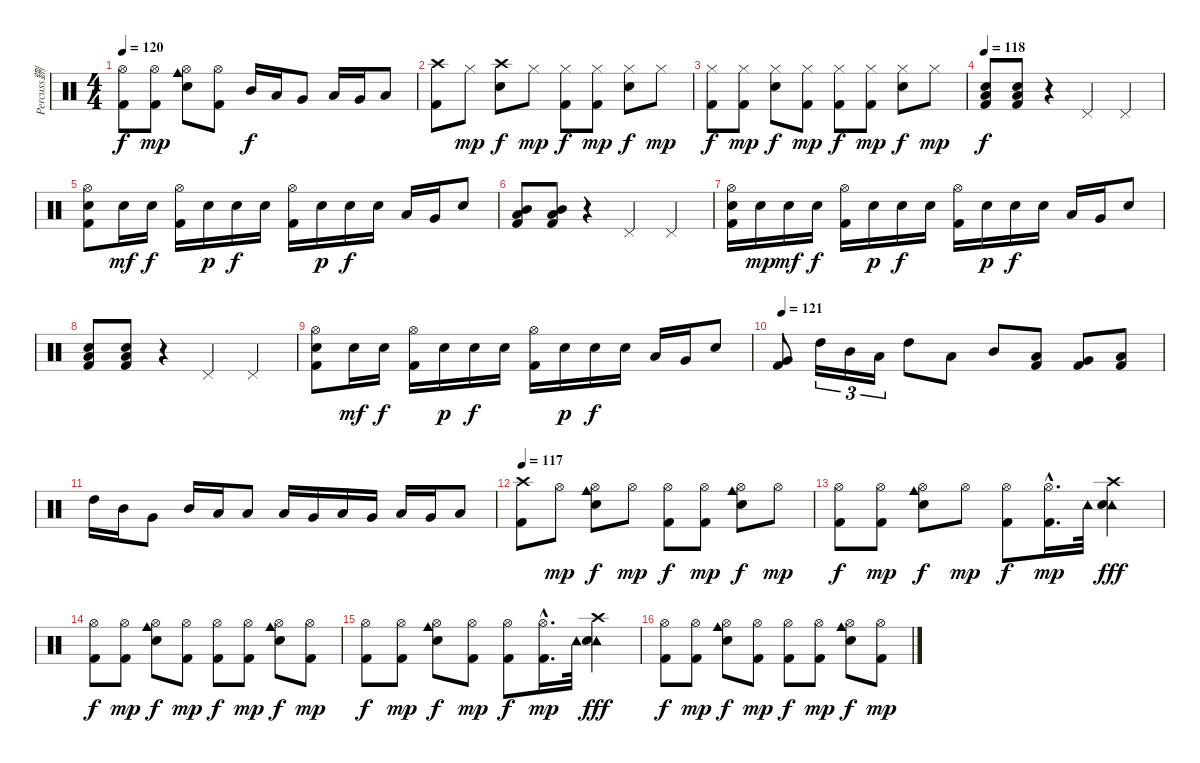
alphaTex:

\track ("Percuss鉶" "Percuss鉶") {instrument percussion}
\staff {score}
\articulation defaults
\ts (4 4)
\tempo 120
\clef neutral
\ks c
("Hi-Hat (open)" "Kick (hit) 2").8{dy f} ("Hi-Hat (open)" "Kick (hit) 2").8{dy mp} ("Cowbell medium (hit)" "Hi-Hat (open)" "Snare (hit) 2").8 ("Hi-Hat (open)" "Kick (hit) 2").8 "Mid Tom (hit)".16{dy f} "Low Tom (hit)".16 "Very Low Tom (hit)".8 "Low Tom (hit)".16 "Very Low Tom (hit)".16 "Low Floor Tom (hit)".8 |
("Crash high (hit)" "Kick (hit) 2").8 "Hi-Hat (closed)".8{dy mp} ("Crash high (hit)" "Snare (hit) 2").8{dy f} "Hi-Hat (closed)".8{dy mp} ("Hi-Hat (closed)" "Kick (hit) 2").8{dy f} ("Hi-Hat (closed)" "Kick (hit) 2").8{dy mp} ("Hi-Hat (closed)" "Snare (hit) 2").8{dy f} "Hi-Hat (closed)".8{dy mp} |
("Hi-Hat (closed)" "Kick (hit) 2").8{dy f} ("Hi-Hat (closed)" "Kick (hit) 2").8{dy mp} ("Hi-Hat (closed)" "Snare (hit) 2").8{dy f} ("Hi-Hat (closed)" "Kick (hit) 2").8{dy mp} ("Hi-Hat (closed)" "Kick (hit) 2").8{dy f} ("Hi-Hat (closed)" "Kick (hit) 2").8{dy mp} ("Hi-Hat (closed)" "Snare (hit) 2").8{dy f} "Hi-Hat (closed)".8{dy mp} |
\tempo 118
("Low Tom (hit)" "Snare (hit) 2" "Kick (hit) 2").8{dy f} ("Low Tom (hit)" "Snare (hit) 2" "Kick (hit) 2").8 r.4 "Pedal Hi-Hat (hit)".4 "Pedal Hi-Hat (hit)".4 |
("Hi-Hat (open)" "Snare (hit) 2" "Kick (hit) 2").8 "Snare (hit) 2".16{dy mf} "Snare (hit) 2".16{dy f} ("Hi-Hat (open)" "Kick (hit) 2").16 "Snare (hit) 2".16{dy p} "Snare (hit) 2".16{dy f} "Snare (hit) 2".16 ("Hi-Hat (open)" "Kick (hit) 2").16 "Snare (hit) 2".16{dy p} "Snare (hit) 2".16{dy f} "Snare (hit) 2".16 "Low Tom (hit)".16 "Very Low Tom (hit)".16 "Snare (hit) 2".8 |
("Mid Tom (hit)" "Low Tom (hit)" "Kick (hit) 2").8 ("Mid Tom (hit)" "Low Tom (hit)" "Kick (hit) 2").8 r.4 "Pedal Hi-Hat (hit)".4 "Pedal Hi-Hat (hit)".4 |
("Hi-Hat (open)" "Snare (hit) 2" "Kick (hit) 2").16 "Snare (hit) 2".16{dy mp} "Snare (hit) 2".16{dy mf} "Snare (hit) 2".16{dy f} ("Hi-Hat (open)" "Kick (hit) 2").16 "Snare (hit) 2".16{dy p} "Snare (hit) 2".16{dy f} "Snare (hit) 2".16 ("Hi-Hat (open)" "Kick (hit) 2").16 "Snare (hit) 2".16{dy p} "Snare (hit) 2".16{dy f} "Snare (hit) 2".16 "Low Tom (hit)".16 "Very Low Tom (hit)".16 "Snare (hit) 2".8 |
("Low Tom (hit)" "Snare (hit) 2" "Kick (hit) 2").8 ("Low Tom (hit)" "Snare (hit) 2" "Kick (hit) 2").8 r.4 "Pedal Hi-Hat (hit)".4 "Pedal Hi-Hat (hit)".4 |
("Hi-Hat (open)" "Snare (hit) 2" "Kick (hit) 2").8 "Snare (hit) 2".16{dy mf} "Snare (hit) 2".16{dy f} ("Hi-Hat (open)" "Kick (hit) 2").16 "Snare (hit) 2".16{dy p} "Snare (hit) 2".16{dy f} "Snare (hit) 2".16 ("Hi-Hat (open)" "Kick (hit) 2").16 "Snare (hit) 2".16{dy p} "Snare (hit) 2".16{dy f} "Snare (hit) 2".16 "Low Tom (hit)".16 "Very Low Tom (hit)".16 "Snare (hit) 2".8 |
\tempo 121
("Very Low Tom (hit)" "Kick (hit) 2").8 "High Tom (hit)".16{tu (3 2)} "Mid Tom (hit)".16{tu (3 2)} "Low Tom (hit)".16{tu (3 2)} "High Tom (hit)".8 "Low Tom (hit)".8 "Mid Tom (hit)".8 ("Low Tom (hit)" "Kick (hit) 2").8 ("Very Low Tom (hit)" "Kick (hit) 2").8 ("Low Floor Tom (hit)" "Kick (hit) 2").8 |
"High Tom (hit)".16 "Mid Tom (hit)".16 "Very Low Tom (hit)".8 "Mid Tom (hit)".16 "Low Tom (hit)".16 "Low Floor Tom (hit)".8 "Low Tom (hit)".16 "Very Low Tom (hit)".16 "Low Floor Tom (hit)".16 "Very Low Tom (hit)".16 "Low Floor Tom (hit)".16 "Very Low Tom (hit)".16 "Low Floor Tom (hit)".8 |
\tempo 117
("Crash high (hit)" "Kick (hit) 2").8 "Hi-Hat (open)".8{dy mp} ("Cowbell medium (hit)" "Hi-Hat (open)" "Snare (hit) 2").8{dy f} "Hi-Hat (open)".8{dy mp} ("Hi-Hat (open)" "Kick (hit) 2").8{dy f} ("Hi-Hat (open)" "Kick (hit) 2").8{dy mp} ("Cowbell medium (hit)" "Hi-Hat (open)" "Snare (hit) 2").8{dy f} "Hi-Hat (open)".8{dy mp} |
("Hi-Hat (open)" "Kick (hit) 2").8{dy f} ("Hi-Hat (open)" "Kick (hit) 2").8{dy mp} ("Cowbell medium (hit)" "Hi-Hat (open)" "Snare (hit) 2").8{dy f} "Hi-Hat (open)".8{dy mp} ("Hi-Hat (open)" "Kick (hit) 2").8{dy f} ("Hi-Hat (open)"{hac} "Kick (hit) 2"{hac}).16{d dy mp} "Tambourine (hit)".32 ("Crash high (hit)" "Tambourine (hit)" "Snare (hit) 2").4{dy fff} |
("Hi-Hat (open)" "Kick (hit) 2").8{dy f} ("Hi-Hat (open)" "Kick (hit) 2").8{dy mp} ("Cowbell medium (hit)" "Hi-Hat (open)" "Snare (hit) 2").8{dy f} ("Hi-Hat (open)" "Kick (hit) 2").8{dy mp} ("Hi-Hat (open)" "Kick (hit) 2").8{dy f} ("Hi-Hat (open)" "Kick (hit) 2").8{dy mp} ("Cowbell medium (hit)" "Hi-Hat (open)" "Snare (hit) 2").8{dy f} ("Hi-Hat (open)" "Kick (hit) 2").8{dy mp} |
("Hi-Hat (open)" "Kick (hit) 2").8{dy f} ("Hi-Hat (open)" "Kick (hit) 2").8{dy mp} ("Cowbell medium (hit)" "Hi-Hat (open)" "Snare (hit) 2").8{dy f} ("Hi-Hat (open)" "Kick (hit) 2").8{dy mp} ("Hi-Hat (open)" "Kick (hit) 2").8{dy f} ("Hi-Hat (open)"{hac} "Kick (hit) 2"{hac}).16{d dy mp} "Tambourine (hit)".32 ("Crash high (hit)" "Tambourine (hit)" "Snare (hit) 2").4{dy fff} |
("Hi-Hat (open)" "Kick (hit) 2").8{dy f} ("Hi-Hat (open)" "Kick (hit) 2").8{dy mp} ("Cowbell medium (hit)" "Hi-Hat (open)" "Snare (hit) 2").8{dy f} ("Hi-Hat (open)" "Kick (hit) 2").8{dy mp} ("Hi-Hat (open)" "Kick (hit) 2").8{dy f} ("Hi-Hat (open)" "Kick (hit) 2").8{dy mp} ("Cowbell medium (hit)" "Hi-Hat (open)" "Snare (hit) 2").8{dy f} ("Hi-Hat (open)" "Kick (hit) 2").8{dy mp}
